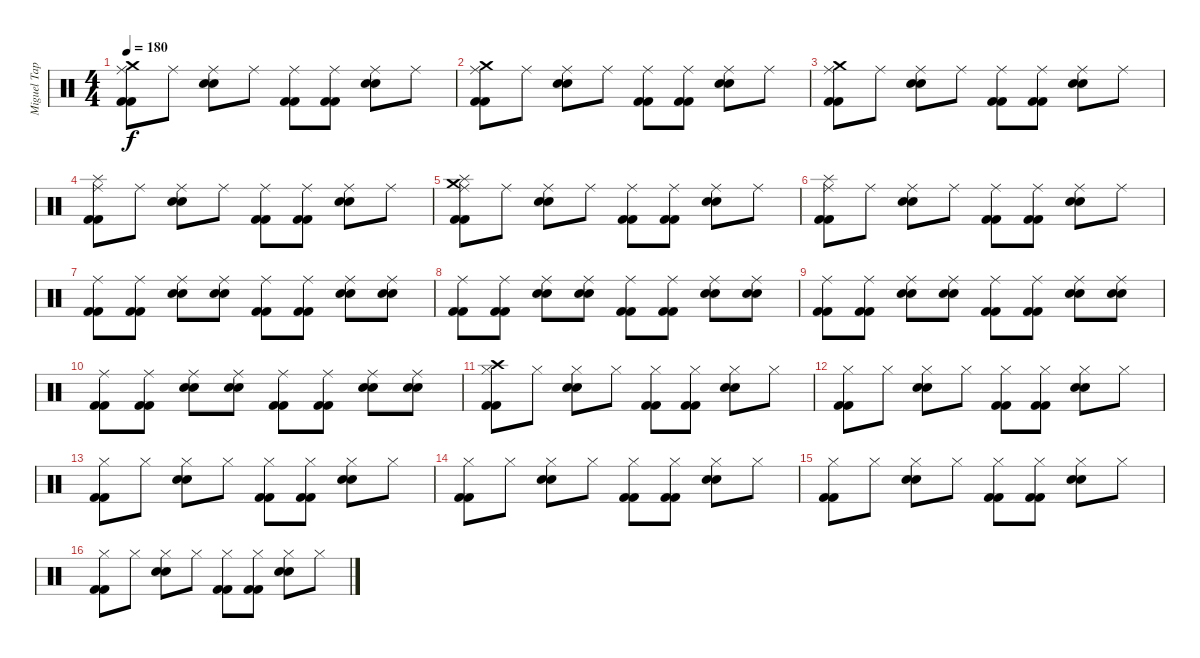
\track ("Miguel Tapia" "Miguel Tap") {instrument percussion}
\staff {score}
\articulation defaults
\ts (4 4)
\tempo 180
\clef neutral
\ks c
("Ride (middle)" "Kick (hit) 2" "Kick (hit) 2" "Crash medium (hit)").8{dy f} "Ride (middle)".8 ("Ride (middle)" "Electric Snare (hit)" "Electric Snare (hit)").8 "Ride (middle)".8 ("Ride (middle)" "Kick (hit) 2" "Kick (hit) 2").8 ("Ride (middle)" "Kick (hit) 2" "Kick (hit) 2").8 ("Ride (middle)" "Electric Snare (hit)" "Electric Snare (hit)").8 "Ride (middle)".8 |
("Ride (middle)" "Kick (hit) 2" "Kick (hit) 2" "Crash medium (hit)").8 "Ride (middle)".8 ("Ride (middle)" "Electric Snare (hit)" "Electric Snare (hit)").8 "Ride (middle)".8 ("Ride (middle)" "Kick (hit) 2" "Kick (hit) 2").8 ("Ride (middle)" "Kick (hit) 2" "Kick (hit) 2").8 ("Ride (middle)" "Electric Snare (hit)" "Electric Snare (hit)").8 "Ride (middle)".8 |
("Ride (middle)" "Kick (hit) 2" "Kick (hit) 2" "Crash medium (hit)").8 "Ride (middle)".8 ("Ride (middle)" "Electric Snare (hit)" "Electric Snare (hit)").8 "Ride (middle)".8 ("Ride (middle)" "Kick (hit) 2" "Kick (hit) 2").8 ("Ride (middle)" "Kick (hit) 2" "Kick (hit) 2").8 ("Ride (middle)" "Electric Snare (hit)" "Electric Snare (hit)").8 "Ride (middle)".8 |
("Ride (middle)" "Kick (hit) 2" "Kick (hit) 2" "Splash (hit)").8 "Ride (middle)".8 ("Ride (middle)" "Electric Snare (hit)" "Electric Snare (hit)").8 "Ride (middle)".8 ("Ride (middle)" "Kick (hit) 2" "Kick (hit) 2").8 ("Ride (middle)" "Kick (hit) 2" "Kick (hit) 2").8 ("Ride (middle)" "Electric Snare (hit)" "Electric Snare (hit)").8 "Ride (middle)".8 |
("Ride (middle)" "Kick (hit) 2" "Kick (hit) 2" "Crash medium (hit)" "Splash (hit)").8 "Ride (middle)".8 ("Ride (middle)" "Electric Snare (hit)" "Electric Snare (hit)").8 "Ride (middle)".8 ("Ride (middle)" "Kick (hit) 2" "Kick (hit) 2").8 ("Ride (middle)" "Kick (hit) 2" "Kick (hit) 2").8 ("Ride (middle)" "Electric Snare (hit)" "Electric Snare (hit)").8 "Ride (middle)".8 |
("Ride (middle)" "Kick (hit) 2" "Kick (hit) 2" "Splash (hit)").8 "Ride (middle)".8 ("Ride (middle)" "Electric Snare (hit)" "Electric Snare (hit)").8 "Ride (middle)".8 ("Ride (middle)" "Kick (hit) 2" "Kick (hit) 2").8 ("Ride (middle)" "Kick (hit) 2" "Kick (hit) 2").8 ("Ride (middle)" "Electric Snare (hit)" "Electric Snare (hit)").8 "Ride (middle)".8 |
("Ride (middle)" "Kick (hit) 2" "Kick (hit) 2").8 ("Ride (middle)" "Kick (hit) 2" "Kick (hit) 2").8 ("Ride (middle)" "Electric Snare (hit)" "Electric Snare (hit)").8 ("Ride (middle)" "Electric Snare (hit)" "Electric Snare (hit)").8 ("Ride (middle)" "Kick (hit) 2" "Kick (hit) 2").8 ("Ride (middle)" "Kick (hit) 2" "Kick (hit) 2").8 ("Ride (middle)" "Electric Snare (hit)" "Electric Snare (hit)").8 ("Ride (middle)" "Electric Snare (hit)" "Electric Snare (hit)").8 |
("Ride (middle)" "Kick (hit) 2" "Kick (hit) 2").8 ("Ride (middle)" "Kick (hit) 2" "Kick (hit) 2").8 ("Ride (middle)" "Electric Snare (hit)" "Electric Snare (hit)").8 ("Ride (middle)" "Electric Snare (hit)" "Electric Snare (hit)").8 ("Ride (middle)" "Kick (hit) 2" "Kick (hit) 2").8 ("Ride (middle)" "Kick (hit) 2" "Kick (hit) 2").8 ("Ride (middle)" "Electric Snare (hit)" "Electric Snare (hit)").8 ("Ride (middle)" "Electric Snare (hit)" "Electric Snare (hit)").8 |
("Ride (middle)" "Kick (hit) 2" "Kick (hit) 2").8 ("Ride (middle)" "Kick (hit) 2" "Kick (hit) 2").8 ("Ride (middle)" "Electric Snare (hit)" "Electric Snare (hit)").8 ("Ride (middle)" "Electric Snare (hit)" "Electric Snare (hit)").8 ("Ride (middle)" "Kick (hit) 2" "Kick (hit) 2").8 ("Ride (middle)" "Kick (hit) 2" "Kick (hit) 2").8 ("Ride (middle)" "Electric Snare (hit)" "Electric Snare (hit)").8 ("Ride (middle)" "Electric Snare (hit)" "Electric Snare (hit)").8 |
("Ride (middle)" "Kick (hit) 2" "Kick (hit) 2").8 ("Ride (middle)" "Kick (hit) 2" "Kick (hit) 2").8 ("Ride (middle)" "Electric Snare (hit)" "Electric Snare (hit)").8 ("Ride (middle)" "Electric Snare (hit)" "Electric Snare (hit)").8 ("Ride (middle)" "Kick (hit) 2" "Kick (hit) 2").8 ("Ride (middle)" "Kick (hit) 2" "Kick (hit) 2").8 ("Ride (middle)" "Electric Snare (hit)" "Electric Snare (hit)").8 ("Ride (middle)" "Electric Snare (hit)" "Electric Snare (hit)").8 |
("Hi-Hat (closed)" "Kick (hit) 2" "Kick (hit) 2" "Crash high (hit)").8 "Hi-Hat (closed)".8 ("Hi-Hat (closed)" "Electric Snare (hit)" "Electric Snare (hit)").8 "Hi-Hat (closed)".8 ("Hi-Hat (closed)" "Kick (hit) 2" "Kick (hit) 2").8 ("Hi-Hat (closed)" "Kick (hit) 2" "Kick (hit) 2").8 ("Hi-Hat (closed)" "Electric Snare (hit)" "Electric Snare (hit)").8 "Hi-Hat (closed)".8 |
("Hi-Hat (closed)" "Kick (hit) 2" "Kick (hit) 2").8 "Hi-Hat (closed)".8 ("Hi-Hat (closed)" "Electric Snare (hit)" "Electric Snare (hit)").8 "Hi-Hat (closed)".8 ("Hi-Hat (closed)" "Kick (hit) 2" "Kick (hit) 2").8 ("Hi-Hat (closed)" "Kick (hit) 2" "Kick (hit) 2").8 ("Hi-Hat (closed)" "Electric Snare (hit)" "Electric Snare (hit)").8 "Hi-Hat (closed)".8 |
("Hi-Hat (closed)" "Kick (hit) 2" "Kick (hit) 2").8 "Hi-Hat (closed)".8 ("Hi-Hat (closed)" "Electric Snare (hit)" "Electric Snare (hit)").8 "Hi-Hat (closed)".8 ("Hi-Hat (closed)" "Kick (hit) 2" "Kick (hit) 2").8 ("Hi-Hat (closed)" "Kick (hit) 2" "Kick (hit) 2").8 ("Hi-Hat (closed)" "Electric Snare (hit)" "Electric Snare (hit)").8 "Hi-Hat (closed)".8 |
("Hi-Hat (closed)" "Kick (hit) 2" "Kick (hit) 2").8 "Hi-Hat (closed)".8 ("Hi-Hat (closed)" "Electric Snare (hit)" "Electric Snare (hit)").8 "Hi-Hat (closed)".8 ("Hi-Hat (closed)" "Kick (hit) 2" "Kick (hit) 2").8 ("Hi-Hat (closed)" "Kick (hit) 2" "Kick (hit) 2").8 ("Hi-Hat (closed)" "Electric Snare (hit)" "Electric Snare (hit)").8 "Hi-Hat (closed)".8 |
("Hi-Hat (closed)" "Kick (hit) 2" "Kick (hit) 2").8 "Hi-Hat (closed)".8 ("Hi-Hat (closed)" "Electric Snare (hit)" "Electric Snare (hit)").8 "Hi-Hat (closed)".8 ("Hi-Hat (closed)" "Kick (hit) 2" "Kick (hit) 2").8 ("Hi-Hat (closed)" "Kick (hit) 2" "Kick (hit) 2").8 ("Hi-Hat (closed)" "Electric Snare (hit)" "Electric Snare (hit)").8 "Hi-Hat (closed)".8 |
("Hi-Hat (closed)" "Kick (hit) 2" "Kick (hit) 2").8 "Hi-Hat (closed)".8 ("Hi-Hat (closed)" "Electric Snare (hit)" "Electric Snare (hit)").8 "Hi-Hat (closed)".8 ("Hi-Hat (closed)" "Kick (hit) 2" "Kick (hit) 2").8 ("Hi-Hat (closed)" "Kick (hit) 2" "Kick (hit) 2").8 ("Hi-Hat (closed)" "Electric Snare (hit)" "Electric Snare (hit)").8 "Hi-Hat (closed)".8
